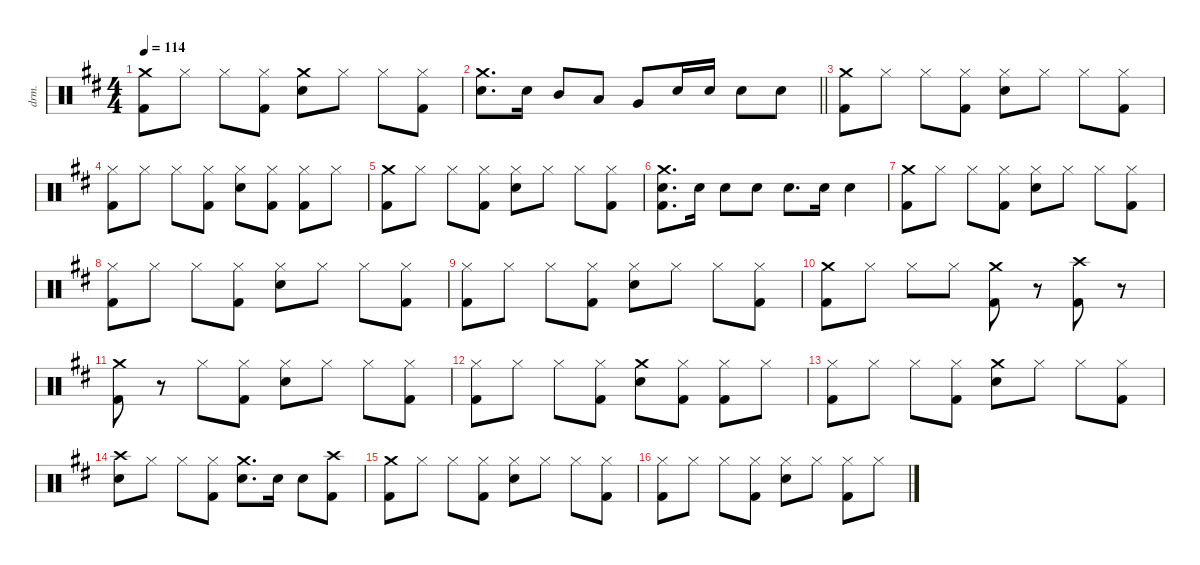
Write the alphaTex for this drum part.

\defaultSystemsLayout 4
\hideDynamics
\bracketExtendMode nobrackets
\otherSystemsTrackNameOrientation horizontal
\track ("Lars - Drums" "drm.") {defaultSystemsLayout 4 instrument percussion}
\staff {score}
\articulation defaults
\ts (4 4)
\tempo 114
\clef neutral
\ks bminor
("Crash medium (hit)"{acc forcenatural} "Kick (hit) 2"{acc forcenatural}).8{dy f beam Down} "Hi-Hat (closed)"{acc forcenatural}.8{beam Down} "Hi-Hat (closed)"{acc forcenatural}.8{beam Down} ("Hi-Hat (closed)"{acc forcenatural} "Kick (hit) 2"{acc forcenatural}).8{beam Down} ("Crash medium (hit)"{acc forcenatural} "Snare (hit) 2"{acc forcenatural}).8{beam Down} "Hi-Hat (closed)"{acc forcenatural}.8{beam Down} "Hi-Hat (closed)"{acc forcenatural}.8{beam Down} ("Hi-Hat (closed)"{acc forcenatural} "Kick (hit) 2"{acc forcenatural}).8{beam Down} |
\barLineRight lightlight
("Crash medium (hit)"{acc forcenatural} "Snare (hit) 2"{acc forcenatural}).8{d beam Down} "Snare (hit) 2"{acc forcenatural}.16{beam Down} "Mid Tom (hit)"{acc forcenatural}.8{beam Up} "Low Tom (hit)"{acc forcenatural}.8{beam Up} "Very Low Tom (hit)"{acc forcenatural}.8{beam Up} "Snare (hit) 2"{acc forcenatural}.16{beam Up} "Snare (hit) 2"{acc forcenatural}.16{beam Up} "Snare (hit) 2"{acc forcenatural}.8{beam Down} "Snare (hit) 2"{acc forcenatural}.8{beam Down} |
("Crash medium (hit)"{acc forcenatural} "Kick (hit) 2"{acc forcenatural}).8{beam Down} "Hi-Hat (closed)"{acc forcenatural}.8{beam Down} "Hi-Hat (closed)"{acc forcenatural}.8{beam Down} ("Hi-Hat (closed)"{acc forcenatural} "Kick (hit) 2"{acc forcenatural}).8{beam Down} ("Hi-Hat (closed)"{acc forcenatural} "Snare (hit) 2"{acc forcenatural}).8{beam Down} "Hi-Hat (closed)"{acc forcenatural}.8{beam Down} "Hi-Hat (closed)"{acc forcenatural}.8{beam Down} ("Hi-Hat (closed)"{acc forcenatural} "Kick (hit) 2"{acc forcenatural}).8{beam Down} |
("Hi-Hat (closed)"{acc forcenatural} "Kick (hit) 2"{acc forcenatural}).8{beam Down} "Hi-Hat (closed)"{acc forcenatural}.8{beam Down} "Hi-Hat (closed)"{acc forcenatural}.8{beam Down} ("Hi-Hat (closed)"{acc forcenatural} "Kick (hit) 2"{acc forcenatural}).8{beam Down} ("Hi-Hat (closed)"{acc forcenatural} "Snare (hit) 2"{acc forcenatural}).8{beam Down} ("Hi-Hat (closed)"{acc forcenatural} "Kick (hit) 2"{acc forcenatural}).8{beam Down} ("Hi-Hat (closed)"{acc forcenatural} "Kick (hit) 2"{acc forcenatural}).8{beam Down} "Hi-Hat (closed)"{acc forcenatural}.8{beam Down} |
("Crash medium (hit)"{acc forcenatural} "Kick (hit) 2"{acc forcenatural}).8{beam Down} "Hi-Hat (closed)"{acc forcenatural}.8{beam Down} "Hi-Hat (closed)"{acc forcenatural}.8{beam Down} ("Hi-Hat (closed)"{acc forcenatural} "Kick (hit) 2"{acc forcenatural}).8{beam Down} ("Hi-Hat (closed)"{acc forcenatural} "Snare (hit) 2"{acc forcenatural}).8{beam Down} "Hi-Hat (closed)"{acc forcenatural}.8{beam Down} "Hi-Hat (closed)"{acc forcenatural}.8{beam Down} ("Hi-Hat (closed)"{acc forcenatural} "Kick (hit) 2"{acc forcenatural}).8{beam Down} |
("Crash medium (hit)"{acc forcenatural} "Kick (hit) 2"{acc forcenatural} "Snare (hit) 2"{acc forcenatural}).8{d beam Down} "Snare (hit) 2"{acc forcenatural}.16{beam Down} "Snare (hit) 2"{acc forcenatural}.8{beam Down} "Snare (hit) 2"{acc forcenatural}.8{beam Down} "Snare (hit) 2"{acc forcenatural}.8{d beam Down} "Snare (hit) 2"{acc forcenatural}.16{beam Down} "Snare (hit) 2"{acc forcenatural}.4{beam Down} |
("Crash medium (hit)"{acc forcenatural} "Kick (hit) 2"{acc forcenatural}).8{beam Down} "Hi-Hat (closed)"{acc forcenatural}.8{beam Down} "Hi-Hat (closed)"{acc forcenatural}.8{beam Down} ("Hi-Hat (closed)"{acc forcenatural} "Kick (hit) 2"{acc forcenatural}).8{beam Down} ("Hi-Hat (closed)"{acc forcenatural} "Snare (hit) 2"{acc forcenatural}).8{beam Down} "Hi-Hat (closed)"{acc forcenatural}.8{beam Down} "Hi-Hat (closed)"{acc forcenatural}.8{beam Down} ("Hi-Hat (closed)"{acc forcenatural} "Kick (hit) 2"{acc forcenatural}).8{beam Down} |
("Hi-Hat (closed)"{acc forcenatural} "Kick (hit) 2"{acc forcenatural}).8{beam Down} "Hi-Hat (closed)"{acc forcenatural}.8{beam Down} "Hi-Hat (closed)"{acc forcenatural}.8{beam Down} ("Hi-Hat (closed)"{acc forcenatural} "Kick (hit) 2"{acc forcenatural}).8{beam Down} ("Hi-Hat (closed)"{acc forcenatural} "Snare (hit) 2"{acc forcenatural}).8{beam Down} "Hi-Hat (closed)"{acc forcenatural}.8{beam Down} "Hi-Hat (closed)"{acc forcenatural}.8{beam Down} ("Hi-Hat (closed)"{acc forcenatural} "Kick (hit) 2"{acc forcenatural}).8{beam Down} |
("Hi-Hat (closed)"{acc forcenatural} "Kick (hit) 2"{acc forcenatural}).8{beam Down} "Hi-Hat (closed)"{acc forcenatural}.8{beam Down} "Hi-Hat (closed)"{acc forcenatural}.8{beam Down} ("Hi-Hat (closed)"{acc forcenatural} "Kick (hit) 2"{acc forcenatural}).8{beam Down} ("Hi-Hat (closed)"{acc forcenatural} "Snare (hit) 2"{acc forcenatural}).8{beam Down} "Hi-Hat (closed)"{acc forcenatural}.8{beam Down} "Hi-Hat (closed)"{acc forcenatural}.8{beam Down} ("Hi-Hat (closed)"{acc forcenatural} "Kick (hit) 2"{acc forcenatural}).8{beam Down} |
("Crash medium (hit)"{acc forcenatural} "Kick (hit) 2"{acc forcenatural}).8{beam Down} "Hi-Hat (closed)"{acc forcenatural}.8{beam Down} "Hi-Hat (closed)"{acc forcenatural}.8{beam Down} "Hi-Hat (closed)"{acc forcenatural}.8{beam Down} ("Crash medium (hit)"{acc forcenatural} "Kick (hit) 2"{acc forcenatural}).8{beam Down} r.8{beam Down} ("Crash high (hit)"{acc forcenatural} "Kick (hit) 2"{acc forcenatural}).8{beam Down} r.8{beam Down} |
("Crash medium (hit)"{acc forcenatural} "Kick (hit) 2"{acc forcenatural}).8{beam Down} r.8{beam Down} "Hi-Hat (closed)"{acc forcenatural}.8{beam Down} ("Hi-Hat (closed)"{acc forcenatural} "Kick (hit) 2"{acc forcenatural}).8{beam Down} ("Hi-Hat (closed)"{acc forcenatural} "Snare (hit) 2"{acc forcenatural}).8{beam Down} "Hi-Hat (closed)"{acc forcenatural}.8{beam Down} "Hi-Hat (closed)"{acc forcenatural}.8{beam Down} ("Hi-Hat (closed)"{acc forcenatural} "Kick (hit) 2"{acc forcenatural}).8{beam Down} |
("Hi-Hat (closed)"{acc forcenatural} "Kick (hit) 2"{acc forcenatural}).8{beam Down} "Hi-Hat (closed)"{acc forcenatural}.8{beam Down} "Hi-Hat (closed)"{acc forcenatural}.8{beam Down} ("Hi-Hat (closed)"{acc forcenatural} "Kick (hit) 2"{acc forcenatural}).8{beam Down} ("Crash medium (hit)"{acc forcenatural} "Snare (hit) 2"{acc forcenatural}).8{beam Down} ("Hi-Hat (closed)"{acc forcenatural} "Kick (hit) 2"{acc forcenatural}).8{beam Down} ("Hi-Hat (closed)"{acc forcenatural} "Kick (hit) 2"{acc forcenatural}).8{beam Down} "Hi-Hat (closed)"{acc forcenatural}.8{beam Down} |
("Hi-Hat (closed)"{acc forcenatural} "Kick (hit) 2"{acc forcenatural}).8{beam Down} "Hi-Hat (closed)"{acc forcenatural}.8{beam Down} "Hi-Hat (closed)"{acc forcenatural}.8{beam Down} ("Hi-Hat (closed)"{acc forcenatural} "Kick (hit) 2"{acc forcenatural}).8{beam Down} ("Crash medium (hit)"{acc forcenatural} "Snare (hit) 2"{acc forcenatural}).8{beam Down} "Hi-Hat (closed)"{acc forcenatural}.8{beam Down} "Hi-Hat (closed)"{acc forcenatural}.8{beam Down} ("Hi-Hat (closed)"{acc forcenatural} "Kick (hit) 2"{acc forcenatural}).8{beam Down} |
("Crash high (hit)"{acc forcenatural} "Snare (hit) 2"{acc forcenatural}).8{beam Down} "Hi-Hat (closed)"{acc forcenatural}.8{beam Down} "Hi-Hat (closed)"{acc forcenatural}.8{beam Down} ("Hi-Hat (closed)"{acc forcenatural} "Kick (hit) 2"{acc forcenatural}).8{beam Down} ("Crash medium (hit)"{acc forcenatural} "Snare (hit) 2"{acc forcenatural}).8{d beam Down} "Snare (hit) 2"{acc forcenatural}.16{beam Down} "Snare (hit) 2"{acc forcenatural}.8{beam Down} ("Crash high (hit)"{acc forcenatural} "Kick (hit) 2"{acc forcenatural}).8{beam Down} |
("Crash medium (hit)"{acc forcenatural} "Kick (hit) 2"{acc forcenatural}).8{beam Down} "Hi-Hat (closed)"{acc forcenatural}.8{beam Down} "Hi-Hat (closed)"{acc forcenatural}.8{beam Down} ("Hi-Hat (closed)"{acc forcenatural} "Kick (hit) 2"{acc forcenatural}).8{beam Down} ("Hi-Hat (closed)"{acc forcenatural} "Snare (hit) 2"{acc forcenatural}).8{beam Down} "Hi-Hat (closed)"{acc forcenatural}.8{beam Down} "Hi-Hat (closed)"{acc forcenatural}.8{beam Down} ("Hi-Hat (closed)"{acc forcenatural} "Kick (hit) 2"{acc forcenatural}).8{beam Down} |
("Hi-Hat (closed)"{acc forcenatural} "Kick (hit) 2"{acc forcenatural}).8{beam Down} "Hi-Hat (closed)"{acc forcenatural}.8{beam Down} "Hi-Hat (closed)"{acc forcenatural}.8{beam Down} ("Hi-Hat (closed)"{acc forcenatural} "Kick (hit) 2"{acc forcenatural}).8{beam Down} ("Hi-Hat (closed)"{acc forcenatural} "Snare (hit) 2"{acc forcenatural}).8{beam Down} "Hi-Hat (closed)"{acc forcenatural}.8{beam Down} ("Hi-Hat (closed)"{acc forcenatural} "Kick (hit) 2"{acc forcenatural}).8{beam Down} "Hi-Hat (closed)"{acc forcenatural}.8{beam Down}
